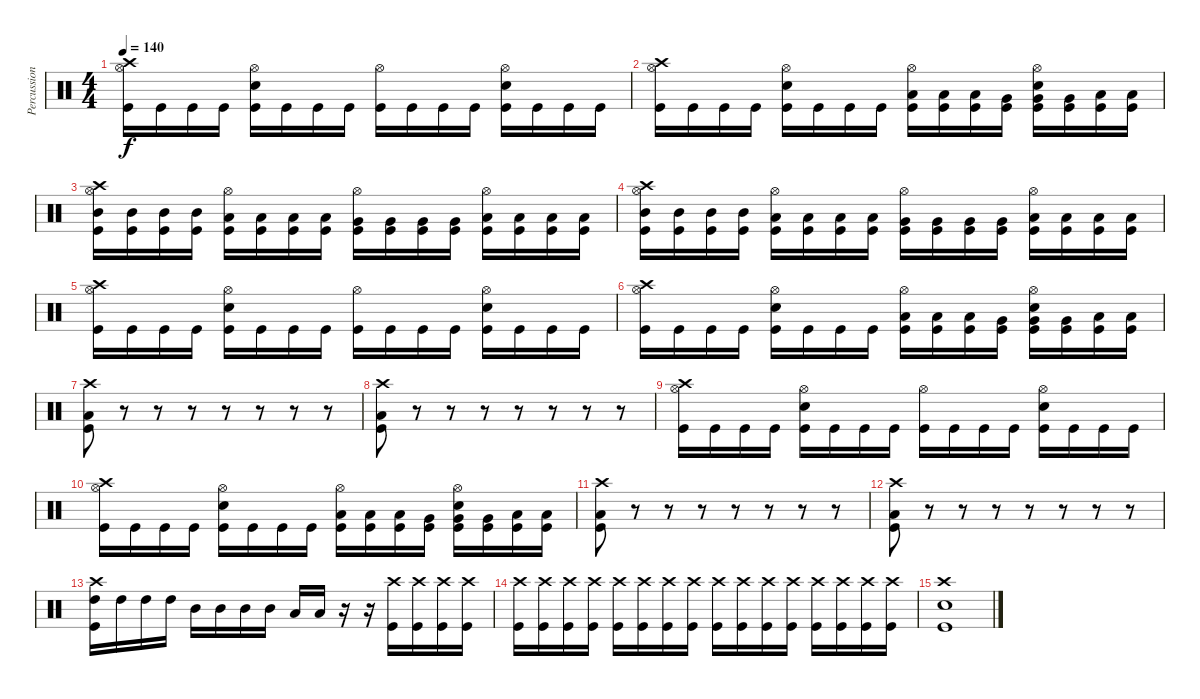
\track ("Percussion" "Percussion") {instrument percussion}
\staff {score}
\articulation defaults
\ts (4 4)
\tempo 140
\clef neutral
\ks c
("Crash high (hit)" "Hi-Hat (open)" "Kick (hit)").16{dy f} "Kick (hit)".16 "Kick (hit)".16 "Kick (hit)".16 ("Hi-Hat (open)" "Electric Snare (hit)" "Kick (hit)").16 "Kick (hit)".16 "Kick (hit)".16 "Kick (hit)".16 ("Hi-Hat (open)" "Kick (hit)").16 "Kick (hit)".16 "Kick (hit)".16 "Kick (hit)".16 ("Hi-Hat (open)" "Electric Snare (hit)" "Kick (hit)").16 "Kick (hit)".16 "Kick (hit)".16 "Kick (hit)".16 |
("Crash high (hit)" "Hi-Hat (open)" "Kick (hit)").16 "Kick (hit)".16 "Kick (hit)".16 "Kick (hit)".16 ("Hi-Hat (open)" "Electric Snare (hit)" "Kick (hit)").16 "Kick (hit)".16 "Kick (hit)".16 "Kick (hit)".16 ("Low Tom (hit)" "Hi-Hat (open)" "Kick (hit)").16 ("Low Tom (hit)" "Kick (hit)").16 ("Low Tom (hit)" "Kick (hit)").16 ("Very Low Tom (hit)" "Kick (hit)").16 ("Very Low Tom (hit)" "Hi-Hat (open)" "Electric Snare (hit)" "Kick (hit)").16 ("Very Low Tom (hit)" "Kick (hit)").16 ("Low Floor Tom (hit)" "Kick (hit)").16 ("Low Floor Tom (hit)" "Kick (hit)").16 |
("Crash high (hit)" "Mid Tom (hit)" "Hi-Hat (open)" "Kick (hit)").16 ("Mid Tom (hit)" "Kick (hit)").16 ("Mid Tom (hit)" "Kick (hit)").16 ("Mid Tom (hit)" "Kick (hit)").16 ("Low Tom (hit)" "Hi-Hat (open)" "Kick (hit)").16 ("Low Tom (hit)" "Kick (hit)").16 ("Low Tom (hit)" "Kick (hit)").16 ("Low Tom (hit)" "Kick (hit)").16 ("Very Low Tom (hit)" "Hi-Hat (open)" "Kick (hit)").16 ("Very Low Tom (hit)" "Kick (hit)").16 ("Very Low Tom (hit)" "Kick (hit)").16 ("Very Low Tom (hit)" "Kick (hit)").16 ("Low Floor Tom (hit)" "Hi-Hat (open)" "Kick (hit)").16 ("Low Floor Tom (hit)" "Kick (hit)").16 ("Low Floor Tom (hit)" "Kick (hit)").16 ("Low Floor Tom (hit)" "Kick (hit)").16 |
("Crash high (hit)" "Mid Tom (hit)" "Hi-Hat (open)" "Kick (hit)").16 ("Mid Tom (hit)" "Kick (hit)").16 ("Mid Tom (hit)" "Kick (hit)").16 ("Mid Tom (hit)" "Kick (hit)").16 ("Low Tom (hit)" "Hi-Hat (open)" "Kick (hit)").16 ("Low Tom (hit)" "Kick (hit)").16 ("Low Tom (hit)" "Kick (hit)").16 ("Low Tom (hit)" "Kick (hit)").16 ("Very Low Tom (hit)" "Hi-Hat (open)" "Kick (hit)").16 ("Very Low Tom (hit)" "Kick (hit)").16 ("Very Low Tom (hit)" "Kick (hit)").16 ("Very Low Tom (hit)" "Kick (hit)").16 ("Low Floor Tom (hit)" "Hi-Hat (open)" "Kick (hit)").16 ("Low Floor Tom (hit)" "Kick (hit)").16 ("Low Floor Tom (hit)" "Kick (hit)").16 ("Low Floor Tom (hit)" "Kick (hit)").16 |
("Crash high (hit)" "Hi-Hat (open)" "Kick (hit)").16 "Kick (hit)".16 "Kick (hit)".16 "Kick (hit)".16 ("Hi-Hat (open)" "Electric Snare (hit)" "Kick (hit)").16 "Kick (hit)".16 "Kick (hit)".16 "Kick (hit)".16 ("Hi-Hat (open)" "Kick (hit)").16 "Kick (hit)".16 "Kick (hit)".16 "Kick (hit)".16 ("Hi-Hat (open)" "Electric Snare (hit)" "Kick (hit)").16 "Kick (hit)".16 "Kick (hit)".16 "Kick (hit)".16 |
("Crash high (hit)" "Hi-Hat (open)" "Kick (hit)").16 "Kick (hit)".16 "Kick (hit)".16 "Kick (hit)".16 ("Hi-Hat (open)" "Electric Snare (hit)" "Kick (hit)").16 "Kick (hit)".16 "Kick (hit)".16 "Kick (hit)".16 ("Low Tom (hit)" "Hi-Hat (open)" "Kick (hit)").16 ("Low Tom (hit)" "Kick (hit)").16 ("Low Tom (hit)" "Kick (hit)").16 ("Very Low Tom (hit)" "Kick (hit)").16 ("Very Low Tom (hit)" "Hi-Hat (open)" "Electric Snare (hit)" "Kick (hit)").16 ("Very Low Tom (hit)" "Kick (hit)").16 ("Low Floor Tom (hit)" "Kick (hit)").16 ("Low Floor Tom (hit)" "Kick (hit)").16 |
("Crash high (hit)" "Low Floor Tom (hit)" "Kick (hit)").8 r.8 r.8 r.8 r.8 r.8 r.8 r.8 |
("Crash high (hit)" "Low Floor Tom (hit)" "Kick (hit)").8 r.8 r.8 r.8 r.8 r.8 r.8 r.8 |
("Crash high (hit)" "Hi-Hat (open)" "Kick (hit)").16 "Kick (hit)".16 "Kick (hit)".16 "Kick (hit)".16 ("Hi-Hat (open)" "Electric Snare (hit)" "Kick (hit)").16 "Kick (hit)".16 "Kick (hit)".16 "Kick (hit)".16 ("Hi-Hat (open)" "Kick (hit)").16 "Kick (hit)".16 "Kick (hit)".16 "Kick (hit)".16 ("Hi-Hat (open)" "Electric Snare (hit)" "Kick (hit)").16 "Kick (hit)".16 "Kick (hit)".16 "Kick (hit)".16 |
("Crash high (hit)" "Hi-Hat (open)" "Kick (hit)").16 "Kick (hit)".16 "Kick (hit)".16 "Kick (hit)".16 ("Hi-Hat (open)" "Electric Snare (hit)" "Kick (hit)").16 "Kick (hit)".16 "Kick (hit)".16 "Kick (hit)".16 ("Low Tom (hit)" "Hi-Hat (open)" "Kick (hit)").16 ("Low Tom (hit)" "Kick (hit)").16 ("Low Tom (hit)" "Kick (hit)").16 ("Very Low Tom (hit)" "Kick (hit)").16 ("Very Low Tom (hit)" "Hi-Hat (open)" "Electric Snare (hit)" "Kick (hit)").16 ("Very Low Tom (hit)" "Kick (hit)").16 ("Low Floor Tom (hit)" "Kick (hit)").16 ("Low Floor Tom (hit)" "Kick (hit)").16 |
("Crash high (hit)" "Low Floor Tom (hit)" "Kick (hit)").8 r.8 r.8 r.8 r.8 r.8 r.8 r.8 |
("Crash high (hit)" "Low Floor Tom (hit)" "Kick (hit)").8 r.8 r.8 r.8 r.8 r.8 r.8 r.8 |
("Crash high (hit)" "High Tom (hit)" "Kick (hit)").16 "High Tom (hit)".16 "High Tom (hit)".16 "High Tom (hit)".16 "Mid Tom (hit)".16 "Mid Tom (hit)".16 "Mid Tom (hit)".16 "Mid Tom (hit)".16 "Low Tom (hit)".16 "Low Tom (hit)".16 r.16 r.16 ("Crash high (hit)" "Kick (hit)").16 ("Crash high (hit)" "Kick (hit)").16 ("Crash high (hit)" "Kick (hit)").16 ("Crash high (hit)" "Kick (hit)").16 |
("Crash high (hit)" "Kick (hit)").16 ("Crash high (hit)" "Kick (hit)").16 ("Crash high (hit)" "Kick (hit)").16 ("Crash high (hit)" "Kick (hit)").16 ("Crash high (hit)" "Kick (hit)").16 ("Crash high (hit)" "Kick (hit)").16 ("Crash high (hit)" "Kick (hit)").16 ("Crash high (hit)" "Kick (hit)").16 ("Crash high (hit)" "Kick (hit)").16 ("Crash high (hit)" "Kick (hit)").16 ("Crash high (hit)" "Kick (hit)").16 ("Crash high (hit)" "Kick (hit)").16 ("Crash high (hit)" "Kick (hit)").16 ("Crash high (hit)" "Kick (hit)").16 ("Crash high (hit)" "Kick (hit)").16 ("Crash high (hit)" "Kick (hit)").16 |
("Crash high (hit)" "Electric Snare (hit)" "Kick (hit)").1
